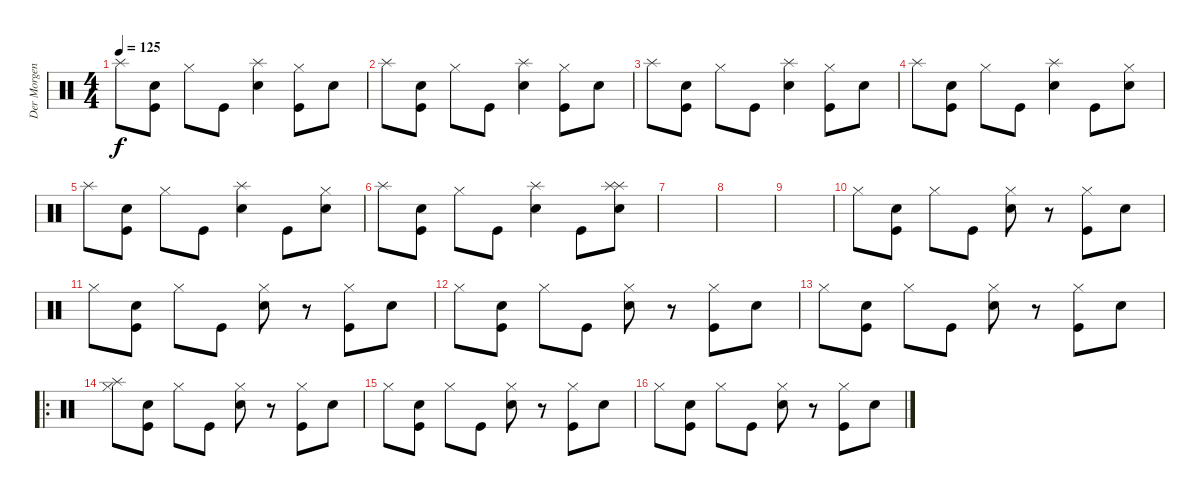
\track ("Der Morgenstern" "Der Morgen") {instrument percussion}
\staff {score}
\articulation defaults
\ts (4 4)
\tempo 125
\clef neutral
\ks c "Splash (hit)".8{dy f}
("Snare (hit) 2" "Kick (hit)").8 "Hi-Hat (closed)".8 "Kick (hit)".8 ("Splash (hit)" "Snare (hit) 2").4 ("Hi-Hat (closed)" "Kick (hit)").8 "Snare (hit) 2".8 |
"Splash (hit)".8 ("Snare (hit) 2" "Kick (hit)").8 "Hi-Hat (closed)".8 "Kick (hit)".8 ("Splash (hit)" "Snare (hit) 2").4 ("Hi-Hat (closed)" "Kick (hit)").8 "Snare (hit) 2".8 |
"Splash (hit)".8 ("Snare (hit) 2" "Kick (hit)").8 "Hi-Hat (closed)".8 "Kick (hit)".8 ("Splash (hit)" "Snare (hit) 2").4 ("Hi-Hat (closed)" "Kick (hit)").8 "Snare (hit) 2".8 |
"Splash (hit)".8 ("Snare (hit) 2" "Kick (hit)").8 "Hi-Hat (closed)".8 "Kick (hit)".8 ("Splash (hit)" "Snare (hit) 2").4 "Kick (hit)".8 ("Hi-Hat (closed)" "Snare (hit) 2").8 |
"Splash (hit)".8 ("Snare (hit) 2" "Kick (hit)").8 "Hi-Hat (closed)".8 "Kick (hit)".8 ("Splash (hit)" "Snare (hit) 2").4 "Kick (hit)".8 ("Hi-Hat (closed)" "Snare (hit) 2").8 |
"Splash (hit)".8 ("Snare (hit) 2" "Kick (hit)").8 "Hi-Hat (closed)".8 "Kick (hit)".8 ("Splash (hit)" "Snare (hit) 2").4 "Kick (hit)".8 ("Splash (hit)" "Snare (hit) 2" "Splash (hit)").8 |
|
|
|
"Hi-Hat (closed)".8 ("Snare (hit) 2" "Kick (hit)").8 "Hi-Hat (closed)".8 "Kick (hit)".8 ("Hi-Hat (closed)" "Snare (hit) 2").8 r.8 ("Hi-Hat (closed)" "Kick (hit)").8 "Snare (hit) 2".8 |
"Hi-Hat (closed)".8 ("Snare (hit) 2" "Kick (hit)").8 "Hi-Hat (closed)".8 "Kick (hit)".8 ("Hi-Hat (closed)" "Snare (hit) 2").8 r.8 ("Hi-Hat (closed)" "Kick (hit)").8 "Snare (hit) 2".8 |
"Hi-Hat (closed)".8 ("Snare (hit) 2" "Kick (hit)").8 "Hi-Hat (closed)".8 "Kick (hit)".8 ("Hi-Hat (closed)" "Snare (hit) 2").8 r.8 ("Hi-Hat (closed)" "Kick (hit)").8 "Snare (hit) 2".8 |
"Hi-Hat (closed)".8 ("Snare (hit) 2" "Kick (hit)").8 "Hi-Hat (closed)".8 "Kick (hit)".8 ("Hi-Hat (closed)" "Snare (hit) 2").8 r.8 ("Hi-Hat (closed)" "Kick (hit)").8 "Snare (hit) 2".8 |
\ro
("Hi-Hat (closed)" "Splash (hit)").8 ("Snare (hit) 2" "Kick (hit)").8 "Hi-Hat (closed)".8 "Kick (hit)".8 ("Hi-Hat (closed)" "Snare (hit) 2").8 r.8 ("Hi-Hat (closed)" "Kick (hit)").8 "Snare (hit) 2".8 |
"Hi-Hat (closed)".8 ("Snare (hit) 2" "Kick (hit)").8 "Hi-Hat (closed)".8 "Kick (hit)".8 ("Hi-Hat (closed)" "Snare (hit) 2").8 r.8 ("Hi-Hat (closed)" "Kick (hit)").8 "Snare (hit) 2".8 |
"Hi-Hat (closed)".8 ("Snare (hit) 2" "Kick (hit)").8 "Hi-Hat (closed)".8 "Kick (hit)".8 ("Hi-Hat (closed)" "Snare (hit) 2").8 r.8 ("Hi-Hat (closed)" "Kick (hit)").8 "Snare (hit) 2".8
